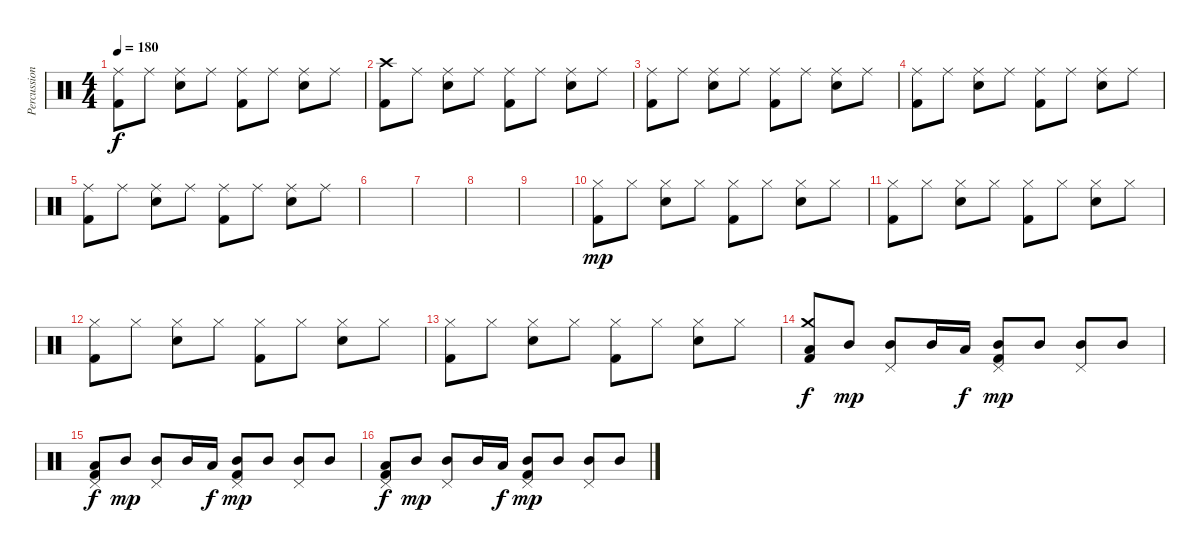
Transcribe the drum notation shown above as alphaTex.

\track ("Percussion" "Percussion") {instrument percussion}
\staff {score}
\articulation defaults
\ts (4 4)
\tempo 180
\clef neutral
\ks c
("Ride (middle)" "Kick (hit) 2").8{dy f} "Ride (middle)".8 ("Ride (middle)" "Snare (hit) 2").8 "Ride (middle)".8 ("Ride (middle)" "Kick (hit) 2").8 "Ride (middle)".8 ("Ride (middle)" "Snare (hit) 2").8 "Ride (middle)".8 |
("Crash high (hit)" "Kick (hit) 2").8 "Ride (middle)".8 ("Ride (middle)" "Snare (hit) 2").8 "Ride (middle)".8 ("Ride (middle)" "Kick (hit) 2").8 "Ride (middle)".8 ("Ride (middle)" "Snare (hit) 2").8 "Ride (middle)".8 |
("Ride (middle)" "Kick (hit) 2").8 "Ride (middle)".8 ("Ride (middle)" "Snare (hit) 2").8 "Ride (middle)".8 ("Ride (middle)" "Kick (hit) 2").8 "Ride (middle)".8 ("Ride (middle)" "Snare (hit) 2").8 "Ride (middle)".8 |
("Ride (middle)" "Kick (hit) 2").8 "Ride (middle)".8 ("Ride (middle)" "Snare (hit) 2").8 "Ride (middle)".8 ("Ride (middle)" "Kick (hit) 2").8 "Ride (middle)".8 ("Ride (middle)" "Snare (hit) 2").8 "Ride (middle)".8 |
("Ride (middle)" "Kick (hit) 2").8 "Ride (middle)".8 ("Ride (middle)" "Snare (hit) 2").8 "Ride (middle)".8 ("Ride (middle)" "Kick (hit) 2").8 "Ride (middle)".8 ("Ride (middle)" "Snare (hit) 2").8 "Ride (middle)".8 |
|
|
|
|
("Hi-Hat (closed)" "Kick (hit) 2").8{dy mp} "Hi-Hat (closed)".8 ("Hi-Hat (closed)" "Snare (hit) 2").8 "Hi-Hat (closed)".8 ("Hi-Hat (closed)" "Kick (hit) 2").8 "Hi-Hat (closed)".8 ("Hi-Hat (closed)" "Snare (hit) 2").8 "Hi-Hat (closed)".8 |
("Hi-Hat (closed)" "Kick (hit) 2").8 "Hi-Hat (closed)".8 ("Hi-Hat (closed)" "Snare (hit) 2").8 "Hi-Hat (closed)".8 ("Hi-Hat (closed)" "Kick (hit) 2").8 "Hi-Hat (closed)".8 ("Hi-Hat (closed)" "Snare (hit) 2").8 "Hi-Hat (closed)".8 |
("Hi-Hat (closed)" "Kick (hit) 2").8 "Hi-Hat (closed)".8 ("Hi-Hat (closed)" "Snare (hit) 2").8 "Hi-Hat (closed)".8 ("Hi-Hat (closed)" "Kick (hit) 2").8 "Hi-Hat (closed)".8 ("Hi-Hat (closed)" "Snare (hit) 2").8 "Hi-Hat (closed)".8 |
("Hi-Hat (closed)" "Kick (hit) 2").8 "Hi-Hat (closed)".8 ("Hi-Hat (closed)" "Snare (hit) 2").8 "Hi-Hat (closed)".8 ("Hi-Hat (closed)" "Kick (hit) 2").8 "Hi-Hat (closed)".8 ("Hi-Hat (closed)" "Snare (hit) 2").8 "Hi-Hat (closed)".8 |
("Crash medium (hit)" "Low Floor Tom (hit)" "Kick (hit) 2").8{dy f} "Mid Tom (hit)".8{dy mp} ("Pedal Hi-Hat (hit)" "Mid Tom (hit)").8 "Mid Tom (hit)".16 "Low Floor Tom (hit)".16{dy f} ("Pedal Hi-Hat (hit)" "Mid Tom (hit)" "Kick (hit) 2").8{dy mp} "Mid Tom (hit)".8 ("Pedal Hi-Hat (hit)" "Mid Tom (hit)").8 "Mid Tom (hit)".8 |
("Pedal Hi-Hat (hit)" "Low Floor Tom (hit)" "Kick (hit) 2").8{dy f} "Mid Tom (hit)".8{dy mp} ("Pedal Hi-Hat (hit)" "Mid Tom (hit)").8 "Mid Tom (hit)".16 "Low Floor Tom (hit)".16{dy f} ("Pedal Hi-Hat (hit)" "Mid Tom (hit)" "Kick (hit) 2").8{dy mp} "Mid Tom (hit)".8 ("Pedal Hi-Hat (hit)" "Mid Tom (hit)").8 "Mid Tom (hit)".8 |
("Pedal Hi-Hat (hit)" "Low Floor Tom (hit)" "Kick (hit) 2").8{dy f} "Mid Tom (hit)".8{dy mp} ("Pedal Hi-Hat (hit)" "Mid Tom (hit)").8 "Mid Tom (hit)".16 "Low Floor Tom (hit)".16{dy f} ("Pedal Hi-Hat (hit)" "Mid Tom (hit)" "Kick (hit) 2").8{dy mp} "Mid Tom (hit)".8 ("Pedal Hi-Hat (hit)" "Mid Tom (hit)").8 "Mid Tom (hit)".8
